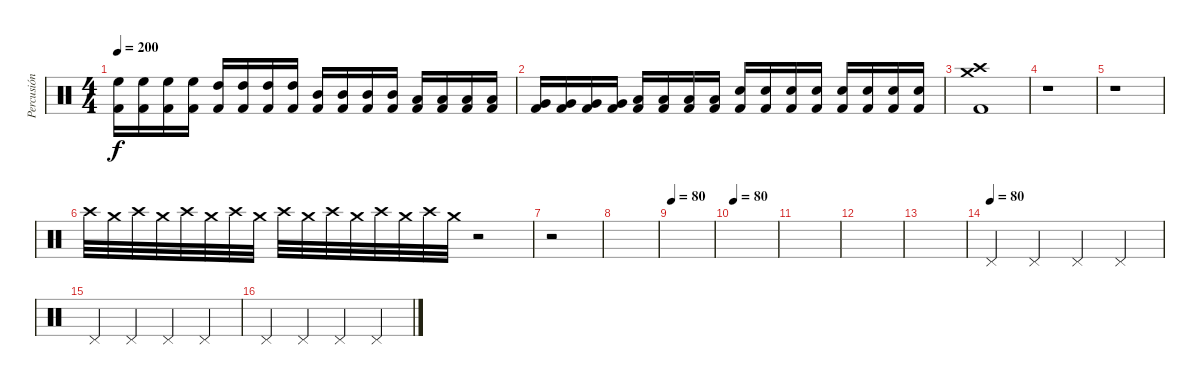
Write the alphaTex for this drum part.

\track ("Percusión" "Percusión") {instrument percussion}
\staff {score}
\articulation defaults
\ts (4 4)
\tempo 200
\clef neutral
\ks c
("Kick (hit) 2" "High Floor Tom (hit)").16{dy f} ("Kick (hit) 2" "High Floor Tom (hit)").16 ("Kick (hit) 2" "High Floor Tom (hit)").16 ("Kick (hit) 2" "High Floor Tom (hit)").16 ("Kick (hit) 2" "High Tom (hit)").16 ("Kick (hit) 2" "High Tom (hit)").16 ("Kick (hit) 2" "High Tom (hit)").16 ("Kick (hit) 2" "High Tom (hit)").16 ("Kick (hit) 2" "Mid Tom (hit)").16 ("Kick (hit) 2" "Mid Tom (hit)").16 ("Kick (hit) 2" "Mid Tom (hit)").16 ("Kick (hit) 2" "Mid Tom (hit)").16 ("Kick (hit) 2" "Low Tom (hit)").16 ("Kick (hit) 2" "Low Tom (hit)").16 ("Kick (hit) 2" "Low Tom (hit)").16 ("Kick (hit) 2" "Low Tom (hit)").16 |
("Kick (hit) 2" "Very Low Tom (hit)").16 ("Kick (hit) 2" "Very Low Tom (hit)").16 ("Kick (hit) 2" "Very Low Tom (hit)").16 ("Kick (hit) 2" "Very Low Tom (hit)").16 ("Kick (hit) 2" "Low Floor Tom (hit)").16 ("Kick (hit) 2" "Low Floor Tom (hit)").16 ("Kick (hit) 2" "Low Floor Tom (hit)").16 ("Kick (hit) 2" "Low Floor Tom (hit)").16 ("Kick (hit) 2" "Snare (hit) 2").16 ("Kick (hit) 2" "Snare (hit) 2").16 ("Kick (hit) 2" "Snare (hit) 2").16 ("Kick (hit) 2" "Snare (hit) 2").16 ("Kick (hit) 2" "Snare (hit) 2").16 ("Kick (hit) 2" "Snare (hit) 2").16 ("Kick (hit) 2" "Snare (hit) 2").16 ("Kick (hit) 2" "Snare (hit) 2").16 |
("Crash high (hit)" "Crash medium (hit)" "Kick (hit) 2").1 |
r.1 |
r.1 |
"Crash high (hit)".32 "Crash medium (hit)".32 "Crash high (hit)".32 "Crash medium (hit)".32 "Crash high (hit)".32 "Crash medium (hit)".32 "Crash high (hit)".32 "Crash medium (hit)".32 "Crash high (hit)".32 "Crash medium (hit)".32 "Crash high (hit)".32 "Crash medium (hit)".32 "Crash high (hit)".32 "Crash medium (hit)".32 "Crash high (hit)".32 "Crash medium (hit)".32 r.2 |
r.2 |
|
\tempo 80
|
\tempo 80
|
|
|
|
\tempo (80)
"Pedal Hi-Hat (hit)".4 "Pedal Hi-Hat (hit)".4 "Pedal Hi-Hat (hit)".4 "Pedal Hi-Hat (hit)".4 |
"Pedal Hi-Hat (hit)".4 "Pedal Hi-Hat (hit)".4 "Pedal Hi-Hat (hit)".4 "Pedal Hi-Hat (hit)".4 |
"Pedal Hi-Hat (hit)".4 "Pedal Hi-Hat (hit)".4 "Pedal Hi-Hat (hit)".4 "Pedal Hi-Hat (hit)".4
